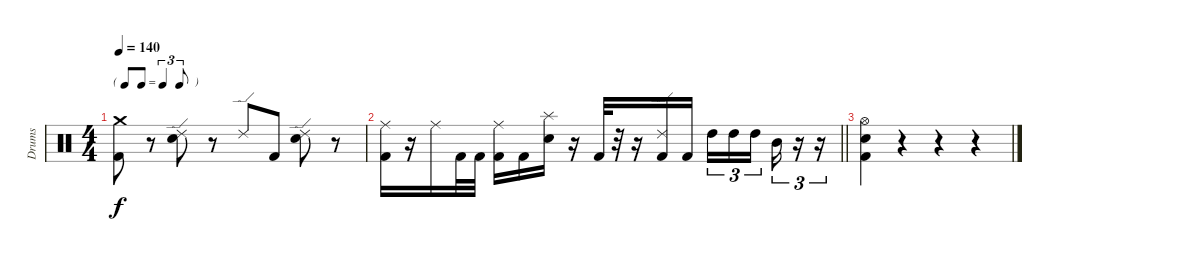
\track ("Drums" "Drums") {instrument percussion}
\staff {score}
\articulation defaults
\ts (4 4)
\tf triplet8th
\tempo 140
\clef neutral
\ks c
("Crash medium (hit)" "Kick (hit) 2").8{dy f} r.8 ("Ride (edge) 2" "Electric Snare (hit)").8 r.8 "Ride (edge) 2".8 "Kick (hit) 2".8 ("Ride (edge) 2" "Electric Snare (hit)").8 r.8 |
\barLineRight lightlight
("Ride (middle)" "Kick (hit) 2").16 r.16 "Ride (middle)".16 "Kick (hit) 2".32 "Kick (hit) 2".32 ("Ride (middle)" "Kick (hit) 2").16 "Kick (hit) 2".16 ("Splash (hit)" "Electric Snare (hit)").16 r.16 "Kick (hit) 2".32 r.32 r.16 ("Ride (edge) 2" "Kick (hit) 2").16 "Kick (hit) 2".16 "High Tom (hit)".16{tu (3 2)} "High Tom (hit)".16{tu (3 2)} "High Tom (hit)".16{tu (3 2) beam splitsecondary} "Mid Tom (hit)".16{tu (3 2)} r.16{tu (3 2)} r.16{tu (3 2)} |
("Hi-Hat (open)" "Electric Snare (hit)" "Kick (hit) 2").4 r.4 r.4 r.4
